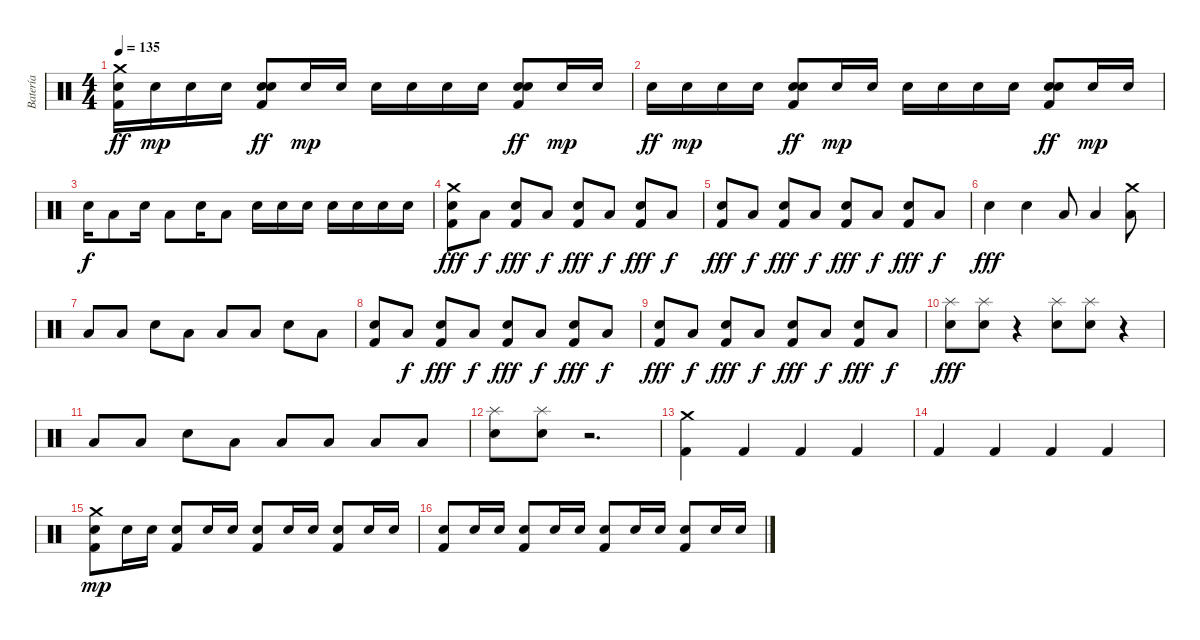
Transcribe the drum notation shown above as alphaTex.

\track ("Batería" "Batería") {instrument percussion}
\staff {score}
\articulation defaults
\ts (4 4)
\tempo 135
\clef neutral
\ks c
("Crash medium (hit)" "Electric Snare (hit)" "Kick (hit) 2").16{dy ff} "Electric Snare (hit)".16{dy mp} "Electric Snare (hit)".16 "Electric Snare (hit)".16 ("Electric Snare (hit)" "Electric Snare (hit)" "Kick (hit) 2").8{dy ff} "Electric Snare (hit)".16{dy mp} "Electric Snare (hit)".16 "Electric Snare (hit)".16 "Electric Snare (hit)".16 "Electric Snare (hit)".16 "Electric Snare (hit)".16 ("Electric Snare (hit)" "Electric Snare (hit)" "Kick (hit) 2").8{dy ff} "Electric Snare (hit)".16{dy mp} "Electric Snare (hit)".16 |
"Electric Snare (hit)".16{dy ff} "Electric Snare (hit)".16{dy mp} "Electric Snare (hit)".16 "Electric Snare (hit)".16 ("Electric Snare (hit)" "Electric Snare (hit)" "Kick (hit) 2").8{dy ff} "Electric Snare (hit)".16{dy mp} "Electric Snare (hit)".16 "Electric Snare (hit)".16 "Electric Snare (hit)".16 "Electric Snare (hit)".16 "Electric Snare (hit)".16 ("Electric Snare (hit)" "Electric Snare (hit)" "Kick (hit) 2").8{dy ff} "Electric Snare (hit)".16{dy mp} "Electric Snare (hit)".16 |
"Electric Snare (hit)".16{dy f} "Low Floor Tom (hit)".8 "Electric Snare (hit)".16 "Low Floor Tom (hit)".8 "Electric Snare (hit)".16 "Low Floor Tom (hit)".8 "Electric Snare (hit)".16 "Electric Snare (hit)".16 "Electric Snare (hit)".16 "Electric Snare (hit)".16 "Electric Snare (hit)".16 "Electric Snare (hit)".16 "Electric Snare (hit)".16 |
("Crash medium (hit)" "Electric Snare (hit)" "Kick (hit) 2").8{dy fff} "Low Floor Tom (hit)".8{dy f} ("Electric Snare (hit)" "Kick (hit) 2").8{dy fff} "Low Floor Tom (hit)".8{dy f} ("Electric Snare (hit)" "Kick (hit) 2").8{dy fff} "Low Floor Tom (hit)".8{dy f} ("Electric Snare (hit)" "Kick (hit) 2").8{dy fff} "Low Floor Tom (hit)".8{dy f} |
("Electric Snare (hit)" "Kick (hit) 2").8{dy fff} "Low Floor Tom (hit)".8{dy f} ("Electric Snare (hit)" "Kick (hit) 2").8{dy fff} "Low Floor Tom (hit)".8{dy f} ("Electric Snare (hit)" "Kick (hit) 2").8{dy fff} "Low Floor Tom (hit)".8{dy f} ("Electric Snare (hit)" "Kick (hit) 2").8{dy fff} "Low Floor Tom (hit)".8{dy f} |
"Electric Snare (hit)".4{dy fff} "Electric Snare (hit)".4 "Low Floor Tom (hit)".8 "Low Floor Tom (hit)".4 ("Crash medium (hit)" "Low Floor Tom (hit)").8 |
"Low Floor Tom (hit)".8 "Low Floor Tom (hit)".8 "Electric Snare (hit)".8 "Low Floor Tom (hit)".8 "Low Floor Tom (hit)".8 "Low Floor Tom (hit)".8 "Electric Snare (hit)".8 "Low Floor Tom (hit)".8 |
("Electric Snare (hit)" "Kick (hit) 2").8 "Low Floor Tom (hit)".8{dy f} ("Electric Snare (hit)" "Kick (hit) 2").8{dy fff} "Low Floor Tom (hit)".8{dy f} ("Electric Snare (hit)" "Kick (hit) 2").8{dy fff} "Low Floor Tom (hit)".8{dy f} ("Electric Snare (hit)" "Kick (hit) 2").8{dy fff} "Low Floor Tom (hit)".8{dy f} |
("Electric Snare (hit)" "Kick (hit) 2").8{dy fff} "Low Floor Tom (hit)".8{dy f} ("Electric Snare (hit)" "Kick (hit) 2").8{dy fff} "Low Floor Tom (hit)".8{dy f} ("Electric Snare (hit)" "Kick (hit) 2").8{dy fff} "Low Floor Tom (hit)".8{dy f} ("Electric Snare (hit)" "Kick (hit) 2").8{dy fff} "Low Floor Tom (hit)".8{dy f} |
("Splash (hit)" "Electric Snare (hit)").8{dy fff} ("Splash (hit)" "Electric Snare (hit)").8 r.4 ("Splash (hit)" "Electric Snare (hit)").8 ("Splash (hit)" "Electric Snare (hit)").8 r.4 |
"Low Floor Tom (hit)".8 "Low Floor Tom (hit)".8 "Electric Snare (hit)".8 "Low Floor Tom (hit)".8 "Low Floor Tom (hit)".8 "Low Floor Tom (hit)".8 "Low Floor Tom (hit)".8 "Low Floor Tom (hit)".8 |
("Splash (hit)" "Electric Snare (hit)").8 ("Splash (hit)" "Electric Snare (hit)").8 r.2{d} |
("Crash medium (hit)" "Kick (hit) 2").4 "Kick (hit) 2".4 "Kick (hit) 2".4 "Kick (hit) 2".4 |
"Kick (hit) 2".4 "Kick (hit) 2".4 "Kick (hit) 2".4 "Kick (hit) 2".4 |
("Crash medium (hit)" "Electric Snare (hit)" "Kick (hit) 2").8{dy mp} "Electric Snare (hit)".16 "Electric Snare (hit)".16 ("Electric Snare (hit)" "Kick (hit) 2").8 "Electric Snare (hit)".16 "Electric Snare (hit)".16 ("Electric Snare (hit)" "Kick (hit) 2").8 "Electric Snare (hit)".16 "Electric Snare (hit)".16 ("Electric Snare (hit)" "Kick (hit) 2").8 "Electric Snare (hit)".16 "Electric Snare (hit)".16 |
("Electric Snare (hit)" "Kick (hit) 2").8 "Electric Snare (hit)".16 "Electric Snare (hit)".16 ("Electric Snare (hit)" "Kick (hit) 2").8 "Electric Snare (hit)".16 "Electric Snare (hit)".16 ("Electric Snare (hit)" "Kick (hit) 2").8 "Electric Snare (hit)".16 "Electric Snare (hit)".16 ("Electric Snare (hit)" "Kick (hit) 2").8 "Electric Snare (hit)".16 "Electric Snare (hit)".16
